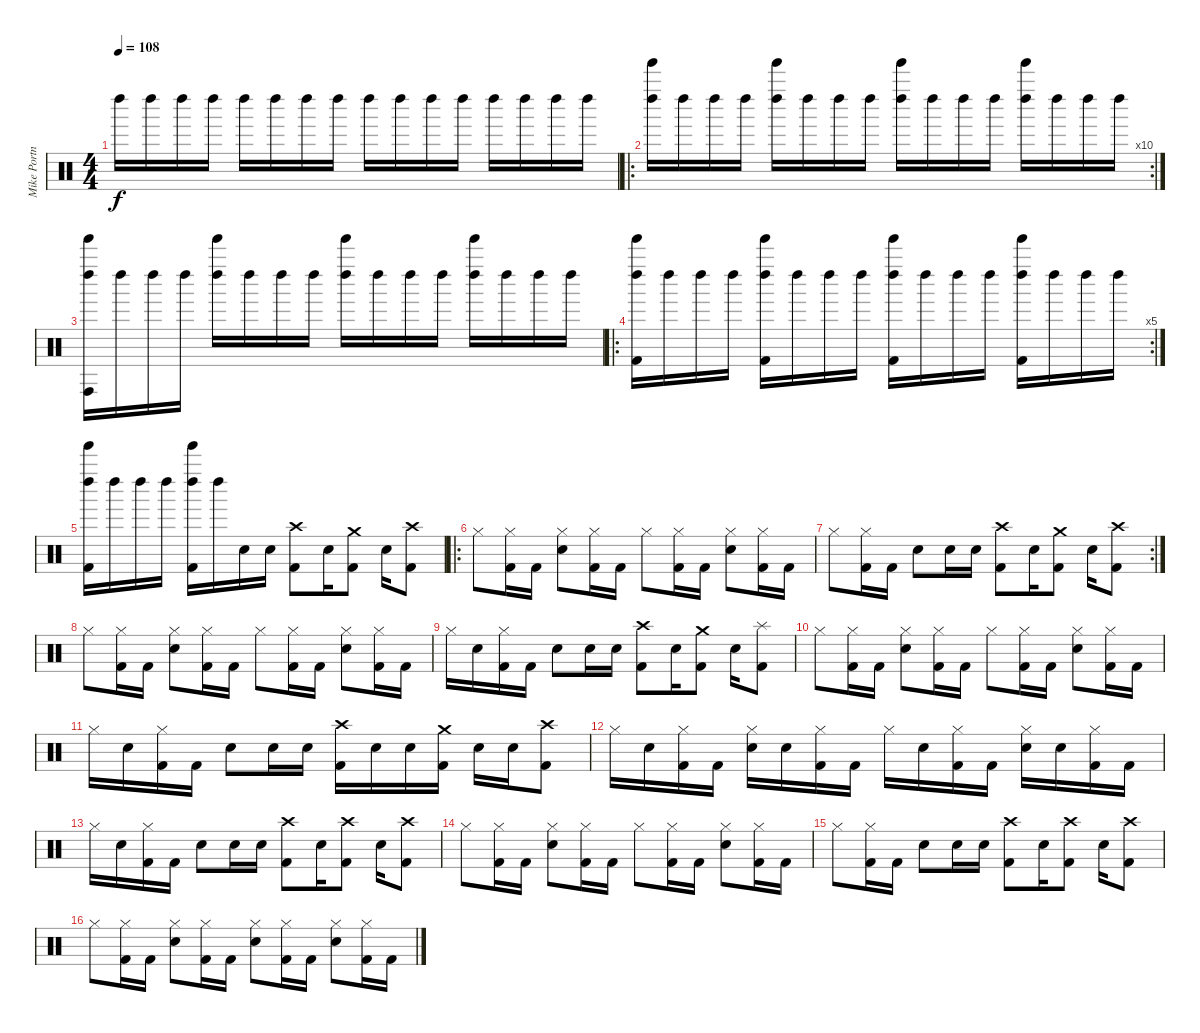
\track ("Mike Portnoy" "Mike Portn") {instrument percussion}
\staff {score}
\articulation defaults
\ts (4 4)
\tempo 108
\clef neutral
\ks c "Left Maraca (hit)".16{dy f} "Left Maraca (hit)".16 "Left Maraca (hit)".16 "Left Maraca (hit)".16 "Left Maraca (hit)".16 "Left Maraca (hit)".16 "Left Maraca (hit)".16 "Left Maraca (hit)".16 "Left Maraca (hit)".16 "Left Maraca (hit)".16 "Left Maraca (hit)".16 "Left Maraca (hit)".16 "Left Maraca (hit)".16 "Left Maraca (hit)".16 "Left Maraca (hit)".16 "Left Maraca (hit)".16
|
\ro
\rc 10
("Left Maraca (hit)" "Tinkle Bell (hit)").16 "Left Maraca (hit)".16 "Left Maraca (hit)".16 "Left Maraca (hit)".16 ("Left Maraca (hit)" "Tinkle Bell (hit)").16 "Left Maraca (hit)".16 "Left Maraca (hit)".16 "Left Maraca (hit)".16 ("Left Maraca (hit)" "Tinkle Bell (hit)").16 "Left Maraca (hit)".16 "Left Maraca (hit)".16 "Left Maraca (hit)".16 ("Left Maraca (hit)" "Tinkle Bell (hit)").16 "Left Maraca (hit)".16 "Left Maraca (hit)".16 "Left Maraca (hit)".16 |
("Left Maraca (hit)" "Tinkle Bell (hit)" "Conga high (hit)").16 "Left Maraca (hit)".16 "Left Maraca (hit)".16 "Left Maraca (hit)".16 ("Left Maraca (hit)" "Tinkle Bell (hit)").16 "Left Maraca (hit)".16 "Left Maraca (hit)".16 "Left Maraca (hit)".16 ("Left Maraca (hit)" "Tinkle Bell (hit)").16 "Left Maraca (hit)".16 "Left Maraca (hit)".16 "Left Maraca (hit)".16 ("Left Maraca (hit)" "Tinkle Bell (hit)").16 "Left Maraca (hit)".16 "Left Maraca (hit)".16 "Left Maraca (hit)".16 |
\ro
\rc 5
("Left Maraca (hit)" "Tinkle Bell (hit)" "Kick (hit) 2").16 "Left Maraca (hit)".16 "Left Maraca (hit)".16 "Left Maraca (hit)".16 ("Left Maraca (hit)" "Tinkle Bell (hit)" "Kick (hit) 2").16 "Left Maraca (hit)".16 "Left Maraca (hit)".16 "Left Maraca (hit)".16 ("Left Maraca (hit)" "Tinkle Bell (hit)" "Kick (hit) 2").16 "Left Maraca (hit)".16 "Left Maraca (hit)".16 "Left Maraca (hit)".16 ("Left Maraca (hit)" "Tinkle Bell (hit)" "Kick (hit) 2").16 "Left Maraca (hit)".16 "Left Maraca (hit)".16 "Left Maraca (hit)".16 |
("Left Maraca (hit)" "Tinkle Bell (hit)" "Kick (hit) 2").16 "Left Maraca (hit)".16 "Left Maraca (hit)".16 "Left Maraca (hit)".16 ("Left Maraca (hit)" "Tinkle Bell (hit)" "Kick (hit) 2").16 "Left Maraca (hit)".16 "Snare (hit) 2".16 "Snare (hit) 2".16 ("Crash high (hit)" "Kick (hit) 2").8 "Snare (hit) 2".16 ("Crash medium (hit)" "Kick (hit) 2").8 "Snare (hit) 2".16 ("Crash high (hit)" "Kick (hit) 2").8 |
\ro "Hi-Hat (closed)".8
("Hi-Hat (closed)" "Kick (hit) 2").16 "Kick (hit) 2".16 ("Hi-Hat (closed)" "Snare (hit) 2").8 ("Hi-Hat (closed)" "Kick (hit) 2").16 "Kick (hit) 2".16 "Hi-Hat (closed)".8 ("Hi-Hat (closed)" "Kick (hit) 2").16 "Kick (hit) 2".16 ("Hi-Hat (closed)" "Snare (hit) 2").8 ("Hi-Hat (closed)" "Kick (hit) 2").16 "Kick (hit) 2".16 |
\rc 2 "Hi-Hat (closed)".8
("Hi-Hat (closed)" "Kick (hit) 2").16 "Kick (hit) 2".16 "Snare (hit) 2".8 "Snare (hit) 2".16 "Snare (hit) 2".16 ("Crash high (hit)" "Kick (hit) 2").8 "Snare (hit) 2".16 ("Crash medium (hit)" "Kick (hit) 2").8 "Snare (hit) 2".16 ("Crash high (hit)" "Kick (hit) 2").8 |
"Hi-Hat (closed)".8 ("Hi-Hat (closed)" "Kick (hit) 2").16 "Kick (hit) 2".16 ("Hi-Hat (closed)" "Snare (hit) 2").8 ("Hi-Hat (closed)" "Kick (hit) 2").16 "Kick (hit) 2".16 "Hi-Hat (closed)".8 ("Hi-Hat (closed)" "Kick (hit) 2").16 "Kick (hit) 2".16 ("Hi-Hat (closed)" "Snare (hit) 2").8 ("Hi-Hat (closed)" "Kick (hit) 2").16 "Kick (hit) 2".16 |
"Hi-Hat (closed)".16 "Snare (hit) 2".16 ("Hi-Hat (closed)" "Kick (hit) 2").16 "Kick (hit) 2".16 "Snare (hit) 2".8 "Snare (hit) 2".16 "Snare (hit) 2".16 ("Crash high (hit)" "Kick (hit) 2").8 "Snare (hit) 2".16 ("Crash medium (hit)" "Kick (hit) 2").8 "Snare (hit) 2".16 ("Splash (hit)" "Kick (hit) 2").8 |
"Hi-Hat (closed)".8 ("Hi-Hat (closed)" "Kick (hit) 2").16 "Kick (hit) 2".16 ("Hi-Hat (closed)" "Snare (hit) 2").8 ("Hi-Hat (closed)" "Kick (hit) 2").16 "Kick (hit) 2".16 "Hi-Hat (closed)".8 ("Hi-Hat (closed)" "Kick (hit) 2").16 "Kick (hit) 2".16 ("Hi-Hat (closed)" "Snare (hit) 2").8 ("Hi-Hat (closed)" "Kick (hit) 2").16 "Kick (hit) 2".16 |
"Hi-Hat (closed)".16 "Snare (hit) 2".16 ("Hi-Hat (closed)" "Kick (hit) 2").16 "Kick (hit) 2".16 "Snare (hit) 2".8 "Snare (hit) 2".16 "Snare (hit) 2".16 ("Crash high (hit)" "Kick (hit) 2").16 "Snare (hit) 2".16 "Snare (hit) 2".16 ("Crash medium (hit)" "Kick (hit) 2").16 "Snare (hit) 2".16 "Snare (hit) 2".16 ("Crash high (hit)" "Kick (hit) 2").8 |
"Hi-Hat (closed)".16 "Snare (hit) 2".16 ("Hi-Hat (closed)" "Kick (hit) 2").16 "Kick (hit) 2".16 ("Hi-Hat (closed)" "Snare (hit) 2").16 "Snare (hit) 2".16 ("Hi-Hat (closed)" "Kick (hit) 2").16 "Kick (hit) 2".16 "Hi-Hat (closed)".16 "Snare (hit) 2".16 ("Hi-Hat (closed)" "Kick (hit) 2").16 "Kick (hit) 2".16 ("Hi-Hat (closed)" "Snare (hit) 2").16 "Snare (hit) 2".16 ("Hi-Hat (closed)" "Kick (hit) 2").16 "Kick (hit) 2".16 |
"Hi-Hat (closed)".16 "Snare (hit) 2".16 ("Hi-Hat (closed)" "Kick (hit) 2").16 "Kick (hit) 2".16 "Snare (hit) 2".8 "Snare (hit) 2".16 "Snare (hit) 2".16 ("Crash high (hit)" "Kick (hit) 2").8 "Snare (hit) 2".16 ("Crash high (hit)" "Kick (hit) 2").8 "Snare (hit) 2".16 ("Crash high (hit)" "Kick (hit) 2").8 |
"Hi-Hat (closed)".8 ("Hi-Hat (closed)" "Kick (hit) 2").16 "Kick (hit) 2".16 ("Hi-Hat (closed)" "Snare (hit) 2").8 ("Hi-Hat (closed)" "Kick (hit) 2").16 "Kick (hit) 2".16 "Hi-Hat (closed)".8 ("Hi-Hat (closed)" "Kick (hit) 2").16 "Kick (hit) 2".16 ("Hi-Hat (closed)" "Snare (hit) 2").8 ("Hi-Hat (closed)" "Kick (hit) 2").16 "Kick (hit) 2".16 |
"Hi-Hat (closed)".8 ("Hi-Hat (closed)" "Kick (hit) 2").16 "Kick (hit) 2".16 "Snare (hit) 2".8 "Snare (hit) 2".16 "Snare (hit) 2".16 ("Crash high (hit)" "Kick (hit) 2").8 "Snare (hit) 2".16 ("Crash high (hit)" "Kick (hit) 2").8 "Snare (hit) 2".16 ("Crash high (hit)" "Kick (hit) 2").8 |
"Hi-Hat (closed)".8 ("Hi-Hat (closed)" "Kick (hit) 2").16 "Kick (hit) 2".16 ("Hi-Hat (closed)" "Snare (hit) 2").8 ("Hi-Hat (closed)" "Kick (hit) 2").16 "Kick (hit) 2".16 ("Hi-Hat (closed)" "Snare (hit) 2").8 ("Hi-Hat (closed)" "Kick (hit) 2").16 "Kick (hit) 2".16 ("Hi-Hat (closed)" "Snare (hit) 2").8 ("Hi-Hat (closed)" "Kick (hit) 2").16 "Kick (hit) 2".16
